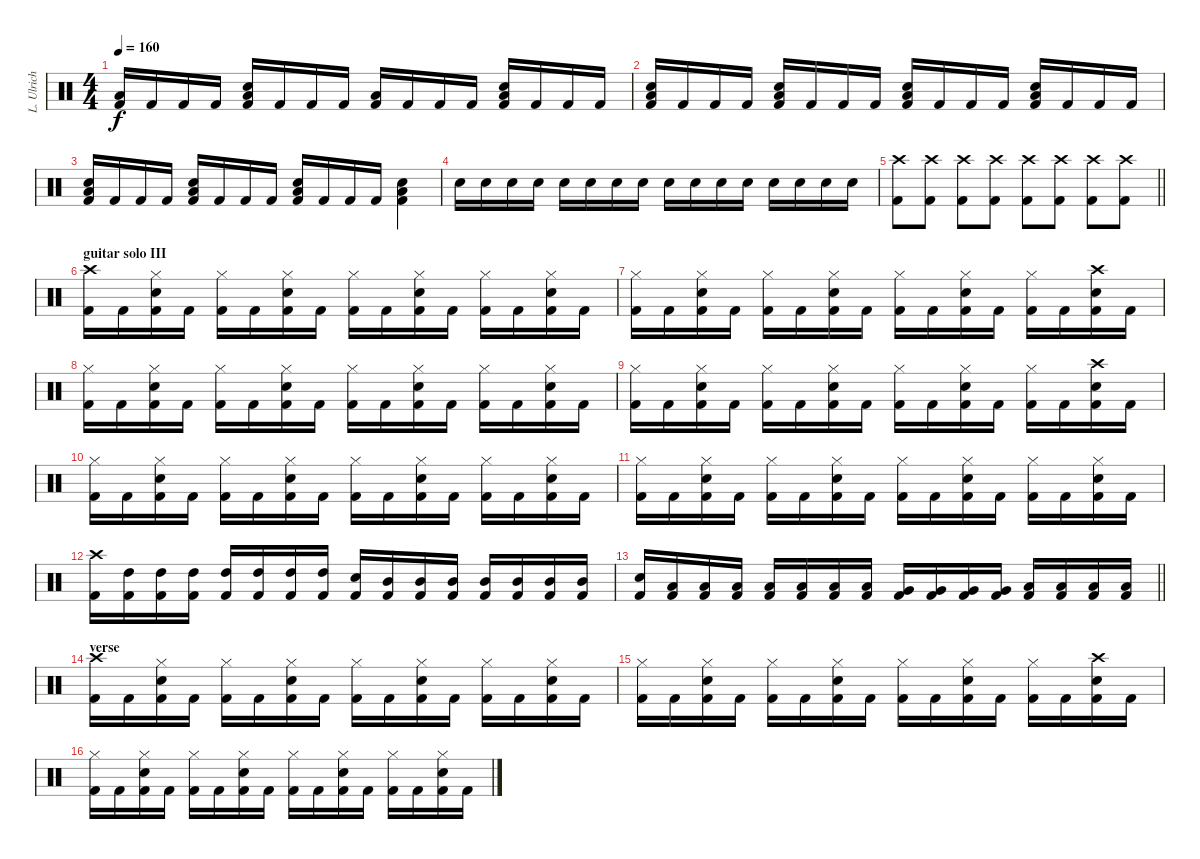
\track ("L. Ulrich - Drums" "L. Ulrich ") {instrument percussion}
\staff {score}
\articulation defaults
\ts (4 4)
\tempo 160
\clef neutral
\ks c
("Low Floor Tom (hit)" "Kick (hit) 2").16{dy f} "Kick (hit) 2".16 "Kick (hit) 2".16 "Kick (hit) 2".16 ("Snare (hit) 2" "Low Floor Tom (hit)" "Kick (hit) 2").16 "Kick (hit) 2".16 "Kick (hit) 2".16 "Kick (hit) 2".16 ("Low Floor Tom (hit)" "Kick (hit) 2").16 "Kick (hit) 2".16 "Kick (hit) 2".16 "Kick (hit) 2".16 ("Snare (hit) 2" "Low Floor Tom (hit)" "Kick (hit) 2").16 "Kick (hit) 2".16 "Kick (hit) 2".16 "Kick (hit) 2".16 |
("Snare (hit) 2" "Low Floor Tom (hit)" "Kick (hit) 2").16 "Kick (hit) 2".16 "Kick (hit) 2".16 "Kick (hit) 2".16 ("Snare (hit) 2" "Low Floor Tom (hit)" "Kick (hit) 2").16 "Kick (hit) 2".16 "Kick (hit) 2".16 "Kick (hit) 2".16 ("Snare (hit) 2" "Low Floor Tom (hit)" "Kick (hit) 2").16 "Kick (hit) 2".16 "Kick (hit) 2".16 "Kick (hit) 2".16 ("Snare (hit) 2" "Low Floor Tom (hit)" "Kick (hit) 2").16 "Kick (hit) 2".16 "Kick (hit) 2".16 "Kick (hit) 2".16 |
("Snare (hit) 2" "Low Floor Tom (hit)" "Kick (hit) 2").16 "Kick (hit) 2".16 "Kick (hit) 2".16 "Kick (hit) 2".16 ("Snare (hit) 2" "Low Floor Tom (hit)" "Kick (hit) 2").16 "Kick (hit) 2".16 "Kick (hit) 2".16 "Kick (hit) 2".16 ("Snare (hit) 2" "Low Floor Tom (hit)" "Kick (hit) 2").16 "Kick (hit) 2".16 "Kick (hit) 2".16 "Kick (hit) 2".16 ("Snare (hit) 2" "Low Floor Tom (hit)" "Kick (hit) 2").4 |
"Snare (hit) 2".16 "Snare (hit) 2".16 "Snare (hit) 2".16 "Snare (hit) 2".16 "Snare (hit) 2".16 "Snare (hit) 2".16 "Snare (hit) 2".16 "Snare (hit) 2".16 "Snare (hit) 2".16 "Snare (hit) 2".16 "Snare (hit) 2".16 "Snare (hit) 2".16 "Snare (hit) 2".16 "Snare (hit) 2".16 "Snare (hit) 2".16 "Snare (hit) 2".16 |
\barLineRight lightlight
("Crash high (hit)" "Kick (hit) 2").8 ("Crash high (hit)" "Kick (hit) 2").8 ("Crash high (hit)" "Kick (hit) 2").8 ("Crash high (hit)" "Kick (hit) 2").8 ("Crash high (hit)" "Kick (hit) 2").8 ("Crash high (hit)" "Kick (hit) 2").8 ("Crash high (hit)" "Kick (hit) 2").8 ("Crash high (hit)" "Kick (hit) 2").8 |
\section ("" "guitar solo III")
("Crash high (hit)" "Kick (hit) 2").16 "Kick (hit) 2".16 ("Hi-Hat (closed)" "Snare (hit) 2" "Kick (hit) 2").16 "Kick (hit) 2".16 ("Hi-Hat (closed)" "Kick (hit) 2").16 "Kick (hit) 2".16 ("Hi-Hat (closed)" "Snare (hit) 2" "Kick (hit) 2").16 "Kick (hit) 2".16 ("Hi-Hat (closed)" "Kick (hit) 2").16 "Kick (hit) 2".16 ("Hi-Hat (closed)" "Snare (hit) 2" "Kick (hit) 2").16 "Kick (hit) 2".16 ("Hi-Hat (closed)" "Kick (hit) 2").16 "Kick (hit) 2".16 ("Hi-Hat (closed)" "Snare (hit) 2" "Kick (hit) 2").16 "Kick (hit) 2".16 |
("Hi-Hat (closed)" "Kick (hit) 2").16 "Kick (hit) 2".16 ("Hi-Hat (closed)" "Snare (hit) 2" "Kick (hit) 2").16 "Kick (hit) 2".16 ("Hi-Hat (closed)" "Kick (hit) 2").16 "Kick (hit) 2".16 ("Hi-Hat (closed)" "Snare (hit) 2" "Kick (hit) 2").16 "Kick (hit) 2".16 ("Hi-Hat (closed)" "Kick (hit) 2").16 "Kick (hit) 2".16 ("Hi-Hat (closed)" "Snare (hit) 2" "Kick (hit) 2").16 "Kick (hit) 2".16 ("Hi-Hat (closed)" "Kick (hit) 2").16 "Kick (hit) 2".16 ("Crash high (hit)" "Snare (hit) 2" "Kick (hit) 2").16 "Kick (hit) 2".16 |
("Hi-Hat (closed)" "Kick (hit) 2").16 "Kick (hit) 2".16 ("Hi-Hat (closed)" "Snare (hit) 2" "Kick (hit) 2").16 "Kick (hit) 2".16 ("Hi-Hat (closed)" "Kick (hit) 2").16 "Kick (hit) 2".16 ("Hi-Hat (closed)" "Snare (hit) 2" "Kick (hit) 2").16 "Kick (hit) 2".16 ("Hi-Hat (closed)" "Kick (hit) 2").16 "Kick (hit) 2".16 ("Hi-Hat (closed)" "Snare (hit) 2" "Kick (hit) 2").16 "Kick (hit) 2".16 ("Hi-Hat (closed)" "Kick (hit) 2").16 "Kick (hit) 2".16 ("Hi-Hat (closed)" "Snare (hit) 2" "Kick (hit) 2").16 "Kick (hit) 2".16 |
("Hi-Hat (closed)" "Kick (hit) 2").16 "Kick (hit) 2".16 ("Hi-Hat (closed)" "Snare (hit) 2" "Kick (hit) 2").16 "Kick (hit) 2".16 ("Hi-Hat (closed)" "Kick (hit) 2").16 "Kick (hit) 2".16 ("Hi-Hat (closed)" "Snare (hit) 2" "Kick (hit) 2").16 "Kick (hit) 2".16 ("Hi-Hat (closed)" "Kick (hit) 2").16 "Kick (hit) 2".16 ("Hi-Hat (closed)" "Snare (hit) 2" "Kick (hit) 2").16 "Kick (hit) 2".16 ("Hi-Hat (closed)" "Kick (hit) 2").16 "Kick (hit) 2".16 ("Crash high (hit)" "Snare (hit) 2" "Kick (hit) 2").16 "Kick (hit) 2".16 |
("Hi-Hat (closed)" "Kick (hit) 2").16 "Kick (hit) 2".16 ("Hi-Hat (closed)" "Snare (hit) 2" "Kick (hit) 2").16 "Kick (hit) 2".16 ("Hi-Hat (closed)" "Kick (hit) 2").16 "Kick (hit) 2".16 ("Hi-Hat (closed)" "Snare (hit) 2" "Kick (hit) 2").16 "Kick (hit) 2".16 ("Hi-Hat (closed)" "Kick (hit) 2").16 "Kick (hit) 2".16 ("Hi-Hat (closed)" "Snare (hit) 2" "Kick (hit) 2").16 "Kick (hit) 2".16 ("Hi-Hat (closed)" "Kick (hit) 2").16 "Kick (hit) 2".16 ("Hi-Hat (closed)" "Snare (hit) 2" "Kick (hit) 2").16 "Kick (hit) 2".16 |
("Hi-Hat (closed)" "Kick (hit) 2").16 "Kick (hit) 2".16 ("Hi-Hat (closed)" "Snare (hit) 2" "Kick (hit) 2").16 "Kick (hit) 2".16 ("Hi-Hat (closed)" "Kick (hit) 2").16 "Kick (hit) 2".16 ("Hi-Hat (closed)" "Snare (hit) 2" "Kick (hit) 2").16 "Kick (hit) 2".16 ("Hi-Hat (closed)" "Kick (hit) 2").16 "Kick (hit) 2".16 ("Hi-Hat (closed)" "Snare (hit) 2" "Kick (hit) 2").16 "Kick (hit) 2".16 ("Hi-Hat (closed)" "Kick (hit) 2").16 "Kick (hit) 2".16 ("Hi-Hat (closed)" "Snare (hit) 2" "Kick (hit) 2").16 "Kick (hit) 2".16 |
("Crash high (hit)" "Kick (hit) 2").16 ("High Tom (hit)" "Kick (hit) 2").16 ("High Tom (hit)" "Kick (hit) 2").16 ("High Tom (hit)" "Kick (hit) 2").16 ("High Tom (hit)" "Kick (hit) 2").16 ("High Tom (hit)" "Kick (hit) 2").16 ("High Tom (hit)" "Kick (hit) 2").16 ("High Tom (hit)" "Kick (hit) 2").16 ("Snare (hit) 2" "Kick (hit) 2").16 ("Mid Tom (hit)" "Kick (hit) 2").16 ("Mid Tom (hit)" "Kick (hit) 2").16 ("Mid Tom (hit)" "Kick (hit) 2").16 ("Mid Tom (hit)" "Kick (hit) 2").16 ("Mid Tom (hit)" "Kick (hit) 2").16 ("Mid Tom (hit)" "Kick (hit) 2").16 ("Mid Tom (hit)" "Kick (hit) 2").16 |
\barLineRight lightlight
("Snare (hit) 2" "Kick (hit) 2").16 ("Low Tom (hit)" "Kick (hit) 2").16 ("Low Tom (hit)" "Kick (hit) 2").16 ("Low Tom (hit)" "Kick (hit) 2").16 ("Low Tom (hit)" "Kick (hit) 2").16 ("Low Tom (hit)" "Kick (hit) 2").16 ("Low Tom (hit)" "Kick (hit) 2").16 ("Low Tom (hit)" "Kick (hit) 2").16 ("Very Low Tom (hit)" "Kick (hit) 2").16 ("Very Low Tom (hit)" "Kick (hit) 2").16 ("Very Low Tom (hit)" "Kick (hit) 2").16 ("Very Low Tom (hit)" "Kick (hit) 2").16 ("Low Floor Tom (hit)" "Kick (hit) 2").16 ("Low Floor Tom (hit)" "Kick (hit) 2").16 ("Low Floor Tom (hit)" "Kick (hit) 2").16 ("Low Floor Tom (hit)" "Kick (hit) 2").16 |
\section ("" "verse")
("Crash high (hit)" "Kick (hit) 2").16 "Kick (hit) 2".16 ("Hi-Hat (closed)" "Snare (hit) 2" "Kick (hit) 2").16 "Kick (hit) 2".16 ("Hi-Hat (closed)" "Kick (hit) 2").16 "Kick (hit) 2".16 ("Hi-Hat (closed)" "Snare (hit) 2" "Kick (hit) 2").16 "Kick (hit) 2".16 ("Hi-Hat (closed)" "Kick (hit) 2").16 "Kick (hit) 2".16 ("Hi-Hat (closed)" "Snare (hit) 2" "Kick (hit) 2").16 "Kick (hit) 2".16 ("Hi-Hat (closed)" "Kick (hit) 2").16 "Kick (hit) 2".16 ("Hi-Hat (closed)" "Snare (hit) 2" "Kick (hit) 2").16 "Kick (hit) 2".16 |
("Hi-Hat (closed)" "Kick (hit) 2").16 "Kick (hit) 2".16 ("Hi-Hat (closed)" "Snare (hit) 2" "Kick (hit) 2").16 "Kick (hit) 2".16 ("Hi-Hat (closed)" "Kick (hit) 2").16 "Kick (hit) 2".16 ("Hi-Hat (closed)" "Snare (hit) 2" "Kick (hit) 2").16 "Kick (hit) 2".16 ("Hi-Hat (closed)" "Kick (hit) 2").16 "Kick (hit) 2".16 ("Hi-Hat (closed)" "Snare (hit) 2" "Kick (hit) 2").16 "Kick (hit) 2".16 ("Hi-Hat (closed)" "Kick (hit) 2").16 "Kick (hit) 2".16 ("Crash high (hit)" "Snare (hit) 2" "Kick (hit) 2").16 "Kick (hit) 2".16 |
("Hi-Hat (closed)" "Kick (hit) 2").16 "Kick (hit) 2".16 ("Hi-Hat (closed)" "Snare (hit) 2" "Kick (hit) 2").16 "Kick (hit) 2".16 ("Hi-Hat (closed)" "Kick (hit) 2").16 "Kick (hit) 2".16 ("Hi-Hat (closed)" "Snare (hit) 2" "Kick (hit) 2").16 "Kick (hit) 2".16 ("Hi-Hat (closed)" "Kick (hit) 2").16 "Kick (hit) 2".16 ("Hi-Hat (closed)" "Snare (hit) 2" "Kick (hit) 2").16 "Kick (hit) 2".16 ("Hi-Hat (closed)" "Kick (hit) 2").16 "Kick (hit) 2".16 ("Hi-Hat (closed)" "Snare (hit) 2" "Kick (hit) 2").16 "Kick (hit) 2".16
